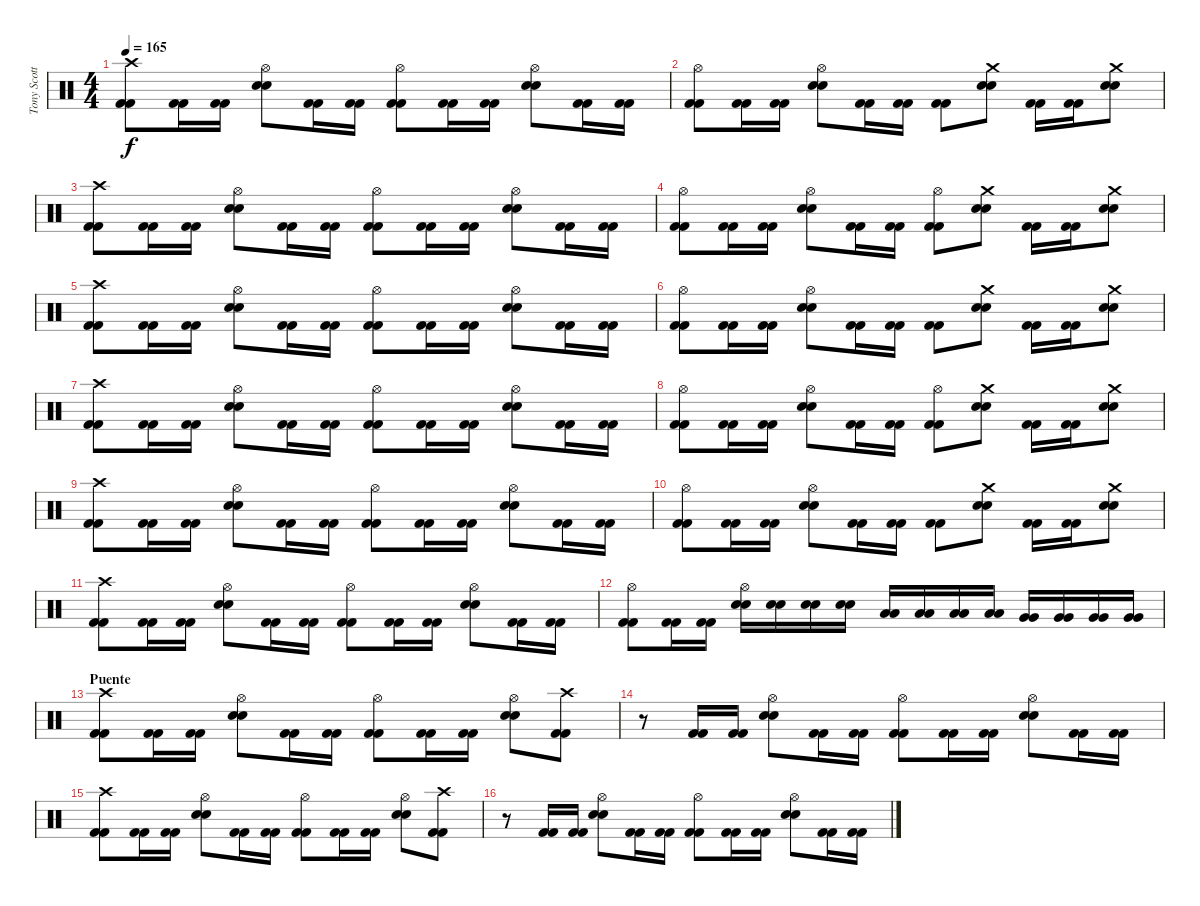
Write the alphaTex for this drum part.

\track ("Tony Scotto (bateria)" "Tony Scott") {instrument percussion}
\staff {score}
\articulation defaults
\ts (4 4)
\tempo 165
\clef neutral
\ks c
("Crash high (hit)" "Kick (hit) 2" "Kick (hit) 2").8{dy f} ("Kick (hit) 2" "Kick (hit) 2").16 ("Kick (hit) 2" "Kick (hit) 2").16 ("Hi-Hat (open)" "Snare (hit) 2" "Snare (hit) 2").8 ("Kick (hit) 2" "Kick (hit) 2").16 ("Kick (hit) 2" "Kick (hit) 2").16 ("Hi-Hat (open)" "Kick (hit) 2" "Kick (hit) 2").8 ("Kick (hit) 2" "Kick (hit) 2").16 ("Kick (hit) 2" "Kick (hit) 2").16 ("Hi-Hat (open)" "Snare (hit) 2" "Snare (hit) 2").8 ("Kick (hit) 2" "Kick (hit) 2").16 ("Kick (hit) 2" "Kick (hit) 2").16 |
("Hi-Hat (open)" "Kick (hit) 2" "Kick (hit) 2").8 ("Kick (hit) 2" "Kick (hit) 2").16 ("Kick (hit) 2" "Kick (hit) 2").16 ("Hi-Hat (open)" "Snare (hit) 2" "Snare (hit) 2").8 ("Kick (hit) 2" "Kick (hit) 2").16 ("Kick (hit) 2" "Kick (hit) 2").16 ("Kick (hit) 2" "Kick (hit) 2").8 ("Crash medium (hit)" "Snare (hit) 2" "Snare (hit) 2").8 ("Kick (hit) 2" "Kick (hit) 2").16 ("Kick (hit) 2" "Kick (hit) 2").16 ("Crash medium (hit)" "Snare (hit) 2" "Snare (hit) 2").8 |
("Crash high (hit)" "Kick (hit) 2" "Kick (hit) 2").8 ("Kick (hit) 2" "Kick (hit) 2").16 ("Kick (hit) 2" "Kick (hit) 2").16 ("Hi-Hat (open)" "Snare (hit) 2" "Snare (hit) 2").8 ("Kick (hit) 2" "Kick (hit) 2").16 ("Kick (hit) 2" "Kick (hit) 2").16 ("Hi-Hat (open)" "Kick (hit) 2" "Kick (hit) 2").8 ("Kick (hit) 2" "Kick (hit) 2").16 ("Kick (hit) 2" "Kick (hit) 2").16 ("Hi-Hat (open)" "Snare (hit) 2" "Snare (hit) 2").8 ("Kick (hit) 2" "Kick (hit) 2").16 ("Kick (hit) 2" "Kick (hit) 2").16 |
("Hi-Hat (open)" "Kick (hit) 2" "Kick (hit) 2").8 ("Kick (hit) 2" "Kick (hit) 2").16 ("Kick (hit) 2" "Kick (hit) 2").16 ("Hi-Hat (open)" "Snare (hit) 2" "Snare (hit) 2").8 ("Kick (hit) 2" "Kick (hit) 2").16 ("Kick (hit) 2" "Kick (hit) 2").16 ("Hi-Hat (open)" "Kick (hit) 2" "Kick (hit) 2").8 ("Crash medium (hit)" "Snare (hit) 2" "Snare (hit) 2").8 ("Kick (hit) 2" "Kick (hit) 2").16 ("Kick (hit) 2" "Kick (hit) 2").16 ("Crash medium (hit)" "Snare (hit) 2" "Snare (hit) 2").8 |
("Crash high (hit)" "Kick (hit) 2" "Kick (hit) 2").8 ("Kick (hit) 2" "Kick (hit) 2").16 ("Kick (hit) 2" "Kick (hit) 2").16 ("Hi-Hat (open)" "Snare (hit) 2" "Snare (hit) 2").8 ("Kick (hit) 2" "Kick (hit) 2").16 ("Kick (hit) 2" "Kick (hit) 2").16 ("Hi-Hat (open)" "Kick (hit) 2" "Kick (hit) 2").8 ("Kick (hit) 2" "Kick (hit) 2").16 ("Kick (hit) 2" "Kick (hit) 2").16 ("Hi-Hat (open)" "Snare (hit) 2" "Snare (hit) 2").8 ("Kick (hit) 2" "Kick (hit) 2").16 ("Kick (hit) 2" "Kick (hit) 2").16 |
("Hi-Hat (open)" "Kick (hit) 2" "Kick (hit) 2").8 ("Kick (hit) 2" "Kick (hit) 2").16 ("Kick (hit) 2" "Kick (hit) 2").16 ("Hi-Hat (open)" "Snare (hit) 2" "Snare (hit) 2").8 ("Kick (hit) 2" "Kick (hit) 2").16 ("Kick (hit) 2" "Kick (hit) 2").16 ("Kick (hit) 2" "Kick (hit) 2").8 ("Crash medium (hit)" "Snare (hit) 2" "Snare (hit) 2").8 ("Kick (hit) 2" "Kick (hit) 2").16 ("Kick (hit) 2" "Kick (hit) 2").16 ("Crash medium (hit)" "Snare (hit) 2" "Snare (hit) 2").8 |
("Crash high (hit)" "Kick (hit) 2" "Kick (hit) 2").8 ("Kick (hit) 2" "Kick (hit) 2").16 ("Kick (hit) 2" "Kick (hit) 2").16 ("Hi-Hat (open)" "Snare (hit) 2" "Snare (hit) 2").8 ("Kick (hit) 2" "Kick (hit) 2").16 ("Kick (hit) 2" "Kick (hit) 2").16 ("Hi-Hat (open)" "Kick (hit) 2" "Kick (hit) 2").8 ("Kick (hit) 2" "Kick (hit) 2").16 ("Kick (hit) 2" "Kick (hit) 2").16 ("Hi-Hat (open)" "Snare (hit) 2" "Snare (hit) 2").8 ("Kick (hit) 2" "Kick (hit) 2").16 ("Kick (hit) 2" "Kick (hit) 2").16 |
("Hi-Hat (open)" "Kick (hit) 2" "Kick (hit) 2").8 ("Kick (hit) 2" "Kick (hit) 2").16 ("Kick (hit) 2" "Kick (hit) 2").16 ("Hi-Hat (open)" "Snare (hit) 2" "Snare (hit) 2").8 ("Kick (hit) 2" "Kick (hit) 2").16 ("Kick (hit) 2" "Kick (hit) 2").16 ("Hi-Hat (open)" "Kick (hit) 2" "Kick (hit) 2").8 ("Crash medium (hit)" "Snare (hit) 2" "Snare (hit) 2").8 ("Kick (hit) 2" "Kick (hit) 2").16 ("Kick (hit) 2" "Kick (hit) 2").16 ("Crash medium (hit)" "Snare (hit) 2" "Snare (hit) 2").8 |
("Crash high (hit)" "Kick (hit) 2" "Kick (hit) 2").8 ("Kick (hit) 2" "Kick (hit) 2").16 ("Kick (hit) 2" "Kick (hit) 2").16 ("Hi-Hat (open)" "Snare (hit) 2" "Snare (hit) 2").8 ("Kick (hit) 2" "Kick (hit) 2").16 ("Kick (hit) 2" "Kick (hit) 2").16 ("Hi-Hat (open)" "Kick (hit) 2" "Kick (hit) 2").8 ("Kick (hit) 2" "Kick (hit) 2").16 ("Kick (hit) 2" "Kick (hit) 2").16 ("Hi-Hat (open)" "Snare (hit) 2" "Snare (hit) 2").8 ("Kick (hit) 2" "Kick (hit) 2").16 ("Kick (hit) 2" "Kick (hit) 2").16 |
("Hi-Hat (open)" "Kick (hit) 2" "Kick (hit) 2").8 ("Kick (hit) 2" "Kick (hit) 2").16 ("Kick (hit) 2" "Kick (hit) 2").16 ("Hi-Hat (open)" "Snare (hit) 2" "Snare (hit) 2").8 ("Kick (hit) 2" "Kick (hit) 2").16 ("Kick (hit) 2" "Kick (hit) 2").16 ("Kick (hit) 2" "Kick (hit) 2").8 ("Crash medium (hit)" "Snare (hit) 2" "Snare (hit) 2").8 ("Kick (hit) 2" "Kick (hit) 2").16 ("Kick (hit) 2" "Kick (hit) 2").16 ("Crash medium (hit)" "Snare (hit) 2" "Snare (hit) 2").8 |
("Crash high (hit)" "Kick (hit) 2" "Kick (hit) 2").8 ("Kick (hit) 2" "Kick (hit) 2").16 ("Kick (hit) 2" "Kick (hit) 2").16 ("Hi-Hat (open)" "Snare (hit) 2" "Snare (hit) 2").8 ("Kick (hit) 2" "Kick (hit) 2").16 ("Kick (hit) 2" "Kick (hit) 2").16 ("Hi-Hat (open)" "Kick (hit) 2" "Kick (hit) 2").8 ("Kick (hit) 2" "Kick (hit) 2").16 ("Kick (hit) 2" "Kick (hit) 2").16 ("Hi-Hat (open)" "Snare (hit) 2" "Snare (hit) 2").8 ("Kick (hit) 2" "Kick (hit) 2").16 ("Kick (hit) 2" "Kick (hit) 2").16 |
("Hi-Hat (open)" "Kick (hit) 2" "Kick (hit) 2").8 ("Kick (hit) 2" "Kick (hit) 2").16 ("Kick (hit) 2" "Kick (hit) 2").16 ("Hi-Hat (open)" "Snare (hit) 2" "Snare (hit) 2").16 ("Snare (hit) 2" "Snare (hit) 2").16 ("Snare (hit) 2" "Snare (hit) 2").16 ("Snare (hit) 2" "Snare (hit) 2").16 ("Low Tom (hit)" "Low Tom (hit)").16 ("Low Tom (hit)" "Low Tom (hit)").16 ("Low Tom (hit)" "Low Tom (hit)").16 ("Low Tom (hit)" "Low Tom (hit)").16 ("Very Low Tom (hit)" "Very Low Tom (hit)").16 ("Very Low Tom (hit)" "Very Low Tom (hit)").16 ("Very Low Tom (hit)" "Very Low Tom (hit)").16 ("Very Low Tom (hit)" "Very Low Tom (hit)").16 |
\section ("" "Puente")
("Crash high (hit)" "Kick (hit) 2" "Kick (hit) 2").8 ("Kick (hit) 2" "Kick (hit) 2").16 ("Kick (hit) 2" "Kick (hit) 2").16 ("Hi-Hat (open)" "Snare (hit) 2" "Snare (hit) 2").8 ("Kick (hit) 2" "Kick (hit) 2").16 ("Kick (hit) 2" "Kick (hit) 2").16 ("Hi-Hat (open)" "Kick (hit) 2" "Kick (hit) 2").8 ("Kick (hit) 2" "Kick (hit) 2").16 ("Kick (hit) 2" "Kick (hit) 2").16 ("Hi-Hat (open)" "Snare (hit) 2" "Snare (hit) 2").8 ("Crash high (hit)" "Kick (hit) 2" "Kick (hit) 2").8 |
r.8 ("Kick (hit) 2" "Kick (hit) 2").16 ("Kick (hit) 2" "Kick (hit) 2").16 ("Hi-Hat (open)" "Snare (hit) 2" "Snare (hit) 2").8 ("Kick (hit) 2" "Kick (hit) 2").16 ("Kick (hit) 2" "Kick (hit) 2").16 ("Hi-Hat (open)" "Kick (hit) 2" "Kick (hit) 2").8 ("Kick (hit) 2" "Kick (hit) 2").16 ("Kick (hit) 2" "Kick (hit) 2").16 ("Hi-Hat (open)" "Snare (hit) 2" "Snare (hit) 2").8 ("Kick (hit) 2" "Kick (hit) 2").16 ("Kick (hit) 2" "Kick (hit) 2").16 |
("Crash high (hit)" "Kick (hit) 2" "Kick (hit) 2").8 ("Kick (hit) 2" "Kick (hit) 2").16 ("Kick (hit) 2" "Kick (hit) 2").16 ("Hi-Hat (open)" "Snare (hit) 2" "Snare (hit) 2").8 ("Kick (hit) 2" "Kick (hit) 2").16 ("Kick (hit) 2" "Kick (hit) 2").16 ("Hi-Hat (open)" "Kick (hit) 2" "Kick (hit) 2").8 ("Kick (hit) 2" "Kick (hit) 2").16 ("Kick (hit) 2" "Kick (hit) 2").16 ("Hi-Hat (open)" "Snare (hit) 2" "Snare (hit) 2").8 ("Crash high (hit)" "Kick (hit) 2" "Kick (hit) 2").8 |
r.8 ("Kick (hit) 2" "Kick (hit) 2").16 ("Kick (hit) 2" "Kick (hit) 2").16 ("Hi-Hat (open)" "Snare (hit) 2" "Snare (hit) 2").8 ("Kick (hit) 2" "Kick (hit) 2").16 ("Kick (hit) 2" "Kick (hit) 2").16 ("Hi-Hat (open)" "Kick (hit) 2" "Kick (hit) 2").8 ("Kick (hit) 2" "Kick (hit) 2").16 ("Kick (hit) 2" "Kick (hit) 2").16 ("Hi-Hat (open)" "Snare (hit) 2" "Snare (hit) 2").8 ("Kick (hit) 2" "Kick (hit) 2").16 ("Kick (hit) 2" "Kick (hit) 2").16
